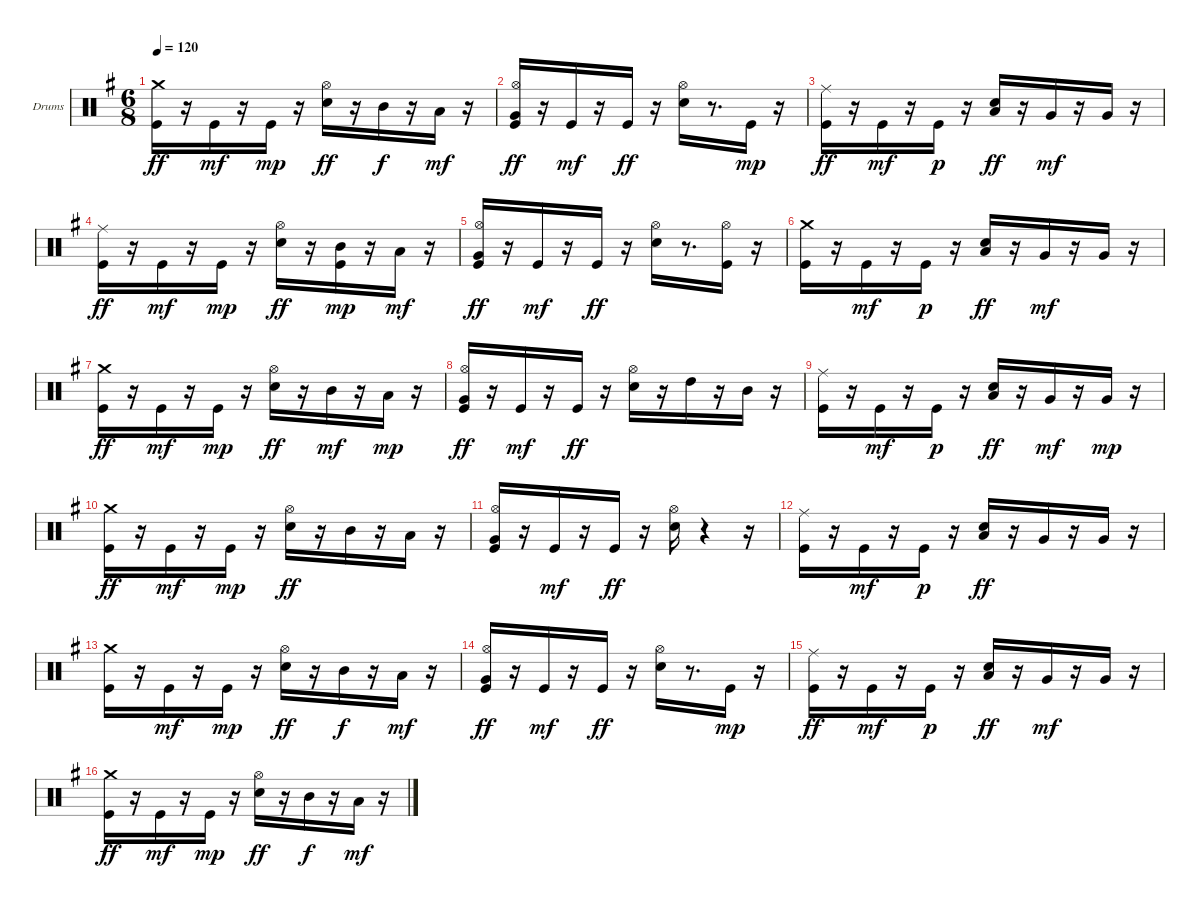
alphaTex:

\bracketExtendMode groupsimilarinstruments
\firstSystemTrackNameOrientation horizontal
\otherSystemsTrackNameOrientation horizontal
\track ("Drumkit" "Drums") {instrument percussion}
\staff {score}
\articulation defaults
\ts (6 8)
\tempo 120
\clef neutral
\ks eminor
("Crash medium (hit)" "Kick (hit)").16{dy ff} r.16 "Kick (hit)".16{dy mf} r.16 "Kick (hit)".16{dy mp} r.16 ("Hi-Hat (open)" "Snare (hit) 2").16{dy ff} r.16 "Mid Tom (hit)".16{dy f} r.16 "Low Tom (hit)".16{dy mf} r.16 |
("Hi-Hat (open)" "Very Low Tom (hit)" "Kick (hit)").16{dy ff} r.16 "Kick (hit)".16{dy mf} r.16 "Kick (hit)".16{dy ff} r.16 ("Hi-Hat (open)" "Snare (hit) 2").16 r.8{d} "Kick (hit)".16{dy mp} r.16 |
("Ride (middle)" "Kick (hit)").16{dy ff} r.16 "Kick (hit)".16{dy mf} r.16 "Kick (hit)".16{dy p} r.16 ("Low Tom (hit)" "Snare (hit) 2").16{dy ff} r.16 "Very Low Tom (hit)".16{dy mf} r.16 "Very Low Tom (hit)".16 r.16 |
("Ride (middle)" "Kick (hit)").16{dy ff} r.16 "Kick (hit)".16{dy mf} r.16 "Kick (hit)".16{dy mp} r.16 ("Hi-Hat (open)" "Snare (hit) 2").16{dy ff} r.16 ("Kick (hit)" "Mid Tom (hit)").16{dy mp} r.16 "Low Tom (hit)".16{dy mf} r.16 |
("Hi-Hat (open)" "Very Low Tom (hit)" "Kick (hit)").16{dy ff} r.16 "Kick (hit)".16{dy mf} r.16 "Kick (hit)".16{dy ff} r.16 ("Hi-Hat (open)" "Snare (hit) 2").16 r.8{d} ("Hi-Hat (open)" "Kick (hit)").16 r.16 |
("Crash medium (hit)" "Kick (hit)").16 r.16 "Kick (hit)".16{dy mf} r.16 "Kick (hit)".16{dy p} r.16 ("Low Tom (hit)" "Snare (hit) 2").16{dy ff} r.16 "Very Low Tom (hit)".16{dy mf} r.16 "Very Low Tom (hit)".16 r.16 |
("Crash medium (hit)" "Kick (hit)").16{dy ff} r.16 "Kick (hit)".16{dy mf} r.16 "Kick (hit)".16{dy mp} r.16 ("Hi-Hat (open)" "Snare (hit) 2").16{dy ff} r.16 "Mid Tom (hit)".16{dy mf} r.16 "Low Tom (hit)".16{dy mp} r.16 |
("Hi-Hat (open)" "Very Low Tom (hit)" "Kick (hit)").16{dy ff} r.16 "Kick (hit)".16{dy mf} r.16 "Kick (hit)".16{dy ff} r.16 ("Hi-Hat (open)" "Snare (hit) 2").16 r.16 "High Tom (hit)".16 r.16 "Mid Tom (hit)".16 r.16 |
("Ride (middle)" "Kick (hit)").16 r.16 "Kick (hit)".16{dy mf} r.16 "Kick (hit)".16{dy p} r.16 ("Low Tom (hit)" "Snare (hit) 2").16{dy ff} r.16 "Very Low Tom (hit)".16{dy mf} r.16 "Very Low Tom (hit)".16{dy mp} r.16 |
("Crash medium (hit)" "Kick (hit)").16{dy ff} r.16 "Kick (hit)".16{dy mf} r.16 "Kick (hit)".16{dy mp} r.16 ("Hi-Hat (open)" "Snare (hit) 2").16{dy ff} r.16 "Mid Tom (hit)".16 r.16 "Low Tom (hit)".16 r.16 |
("Hi-Hat (open)" "Very Low Tom (hit)" "Kick (hit)").16 r.16 "Kick (hit)".16{dy mf} r.16 "Kick (hit)".16{dy ff} r.16 ("Hi-Hat (open)" "Snare (hit) 2").16 r.4 r.16 |
("Ride (middle)" "Kick (hit)").16 r.16 "Kick (hit)".16{dy mf} r.16 "Kick (hit)".16{dy p} r.16 ("Low Tom (hit)" "Snare (hit) 2").16{dy ff} r.16 "Very Low Tom (hit)".16 r.16 "Very Low Tom (hit)".16 r.16 |
("Crash medium (hit)" "Kick (hit)").16 r.16 "Kick (hit)".16{dy mf} r.16 "Kick (hit)".16{dy mp} r.16 ("Hi-Hat (open)" "Snare (hit) 2").16{dy ff} r.16 "Mid Tom (hit)".16{dy f} r.16 "Low Tom (hit)".16{dy mf} r.16 |
("Hi-Hat (open)" "Very Low Tom (hit)" "Kick (hit)").16{dy ff} r.16 "Kick (hit)".16{dy mf} r.16 "Kick (hit)".16{dy ff} r.16 ("Hi-Hat (open)" "Snare (hit) 2").16 r.8{d} "Kick (hit)".16{dy mp} r.16 |
("Ride (middle)" "Kick (hit)").16{dy ff} r.16 "Kick (hit)".16{dy mf} r.16 "Kick (hit)".16{dy p} r.16 ("Low Tom (hit)" "Snare (hit) 2").16{dy ff} r.16 "Very Low Tom (hit)".16{dy mf} r.16 "Very Low Tom (hit)".16 r.16 |
("Crash medium (hit)" "Kick (hit)").16{dy ff} r.16 "Kick (hit)".16{dy mf} r.16 "Kick (hit)".16{dy mp} r.16 ("Hi-Hat (open)" "Snare (hit) 2").16{dy ff} r.16 "Mid Tom (hit)".16{dy f} r.16 "Low Tom (hit)".16{dy mf} r.16
